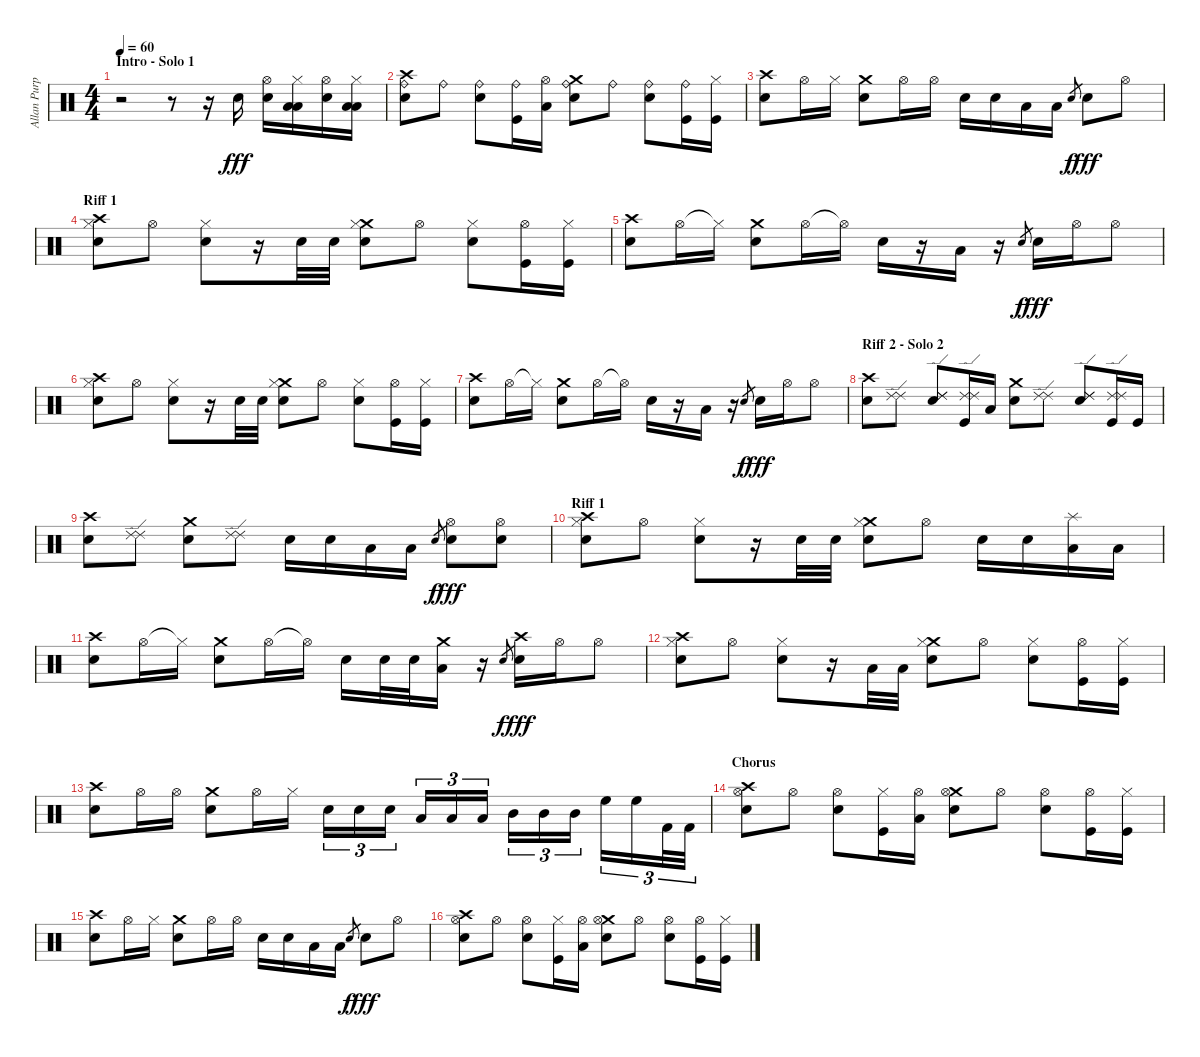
\track ("Allan Purple" "Allan Purp") {instrument percussion}
\staff {score}
\articulation defaults
\ts (4 4)
\section ("" "Intro - Solo 1")
\tempo 60
\clef neutral
\ks c
r.2{dy fff} r.8 r.16 "Electric Snare (hit)".16 ("Hi-Hat (open)" "Electric Snare (hit)").16 ("Hi-Hat (closed)" "Low Tom (hit)" "Low Tom (hit)").16 ("Hi-Hat (open)" "Electric Snare (hit)").16 ("Hi-Hat (closed)" "Low Tom (hit)" "Low Tom (hit)").16 |
("Crash high (hit)" "Ride (bell)" "Snare (hit) 2").8 "Ride (bell)".8 ("Ride (bell)" "Electric Snare (hit)").8 ("Ride (bell)" "Kick (hit)").16 ("Hi-Hat (open)" "Low Tom (hit)").16 ("Crash medium (hit)" "Ride (bell)" "Snare (hit) 2").8 "Ride (bell)".8 ("Ride (bell)" "Electric Snare (hit)").8 ("Ride (bell)" "Kick (hit)").16 ("Hi-Hat (closed)" "Kick (hit)").16 |
("Crash high (hit)" "Snare (hit) 2").8 "Hi-Hat (open)".16 "Hi-Hat (closed)".16 ("Crash medium (hit)" "Electric Snare (hit)").8 "Hi-Hat (open)".16 "Hi-Hat (open)".16 "Electric Snare (hit)".16 "Electric Snare (hit)".16 "Low Tom (hit)".16 "Low Tom (hit)".16 "Electric Snare (hit)".8{gr dy f} "Electric Snare (hit)".8{dy fff} "Hi-Hat (open)".8 |
\section ("" "Riff 1")
("Crash high (hit)" "Hi-Hat (closed)" "Snare (hit) 2").8 "Hi-Hat (open)".8 ("Hi-Hat (closed)" "Electric Snare (hit)").8 r.16 "Snare (hit) 2".32 "Snare (hit) 2".32 ("Crash medium (hit)" "Hi-Hat (closed)" "Snare (hit) 2").8 "Hi-Hat (open)".8 ("Hi-Hat (closed)" "Electric Snare (hit)").8 ("Hi-Hat (open)" "Kick (hit)").16 ("Hi-Hat (closed)" "Kick (hit)").16 |
("Crash high (hit)" "Snare (hit) 2").8 "Hi-Hat (open)".16 "Hi-Hat (closed)"{t}.16 ("Crash medium (hit)" "Electric Snare (hit)").8 "Hi-Hat (open)".16 "Hi-Hat (open)"{t}.16 "Electric Snare (hit)".16 r.16 "Low Tom (hit)".16 r.16 "Electric Snare (hit)".8{gr dy f} "Electric Snare (hit)".16{dy fff} "Hi-Hat (open)".16 "Hi-Hat (open)".8 |
("Crash high (hit)" "Hi-Hat (closed)" "Snare (hit) 2").8 "Hi-Hat (open)".8 ("Hi-Hat (closed)" "Electric Snare (hit)").8 r.16 "Snare (hit) 2".32 "Snare (hit) 2".32 ("Crash medium (hit)" "Hi-Hat (closed)" "Snare (hit) 2").8 "Hi-Hat (open)".8 ("Hi-Hat (closed)" "Electric Snare (hit)").8 ("Hi-Hat (open)" "Kick (hit)").16 ("Hi-Hat (closed)" "Kick (hit)").16 |
("Crash high (hit)" "Snare (hit) 2").8 "Hi-Hat (open)".16 "Hi-Hat (closed)"{t}.16 ("Crash medium (hit)" "Electric Snare (hit)").8 "Hi-Hat (open)".16 "Hi-Hat (open)"{t}.16 "Electric Snare (hit)".16 r.16 "Low Tom (hit)".16 r.16 "Electric Snare (hit)".8{gr dy f} "Electric Snare (hit)".16{dy fff} "Hi-Hat (open)".16 "Hi-Hat (open)".8 |
\section ("" "Riff 2 - Solo 2")
("Crash high (hit)" "Snare (hit) 2").8 ("Ride (edge) 2" "Ride (edge) 2").8 ("Ride (edge) 2" "Ride (edge) 2" "Electric Snare (hit)").8 ("Ride (edge) 2" "Ride (edge) 2" "Kick (hit)").16 "Low Tom (hit)".16 ("Crash medium (hit)" "Snare (hit) 2").8 ("Ride (edge) 2" "Ride (edge) 2").8 ("Ride (edge) 2" "Ride (edge) 2" "Electric Snare (hit)").8 ("Ride (edge) 2" "Ride (edge) 2" "Kick (hit)").16 "Kick (hit)".16 |
("Crash high (hit)" "Snare (hit) 2").8 ("Ride (edge) 2" "Ride (edge) 2").8 ("Crash medium (hit)" "Electric Snare (hit)").8 ("Ride (edge) 2" "Ride (edge) 2").8 "Electric Snare (hit)".16 "Electric Snare (hit)".16 "Low Tom (hit)".16 "Low Tom (hit)".16 "Electric Snare (hit)".8{gr dy f} ("Hi-Hat (open)" "Electric Snare (hit)").8{dy fff} ("Hi-Hat (open)" "Snare (hit) 2").8 |
\section ("" "Riff 1")
("Crash high (hit)" "Hi-Hat (closed)" "Snare (hit) 2").8 "Hi-Hat (open)".8 ("Hi-Hat (closed)" "Electric Snare (hit)").8 r.16 "Snare (hit) 2".32 "Snare (hit) 2".32 ("Crash medium (hit)" "Hi-Hat (closed)" "Snare (hit) 2").8 "Hi-Hat (open)".8 "Electric Snare (hit)".16 "Electric Snare (hit)".16 ("Splash (hit)" "Low Tom (hit)").16 "Low Tom (hit)".16 |
("Crash high (hit)" "Snare (hit) 2").8 "Hi-Hat (open)".16 "Hi-Hat (closed)"{t}.16 ("Crash medium (hit)" "Electric Snare (hit)").8 "Hi-Hat (open)".16 "Hi-Hat (open)"{t}.16 "Electric Snare (hit)".16 "Electric Snare (hit)".32 "Electric Snare (hit)".32 ("Crash medium (hit)" "Low Tom (hit)").16 r.16 "Electric Snare (hit)".8{gr dy f} ("Crash high (hit)" "Electric Snare (hit)").16{dy fff} "Hi-Hat (open)".16 "Hi-Hat (open)".8 |
("Crash high (hit)" "Hi-Hat (closed)" "Snare (hit) 2").8 "Hi-Hat (open)".8 ("Hi-Hat (closed)" "Electric Snare (hit)").8 r.16 "Low Tom (hit)".32 "Low Tom (hit)".32 ("Crash medium (hit)" "Hi-Hat (closed)" "Snare (hit) 2").8 "Hi-Hat (open)".8 ("Hi-Hat (closed)" "Electric Snare (hit)").8 ("Hi-Hat (open)" "Kick (hit)").16 ("Hi-Hat (closed)" "Kick (hit)").16 |
("Crash high (hit)" "Snare (hit) 2").8 "Hi-Hat (open)".16 "Hi-Hat (open)".16 ("Crash medium (hit)" "Electric Snare (hit)").8 "Hi-Hat (open)".16 "Hi-Hat (closed)".16 "Electric Snare (hit)".16{tu (3 2)} "Electric Snare (hit)".16{tu (3 2)} "Electric Snare (hit)".16{tu (3 2)} "Low Tom (hit)".16{tu (3 2)} "Low Tom (hit)".16{tu (3 2)} "Low Tom (hit)".16{tu (3 2)} "Mid Tom (hit)".16{tu (3 2)} "Mid Tom (hit)".16{tu (3 2)} "Mid Tom (hit)".16{tu (3 2)} "High Floor Tom (hit)".16{tu (3 2)} "High Floor Tom (hit)".16{tu (3 2)} "Kick (hit) 2".32{tu (3 2)} "Kick (hit) 2".32{tu (3 2)} |
\section ("" "Chorus")
("Crash high (hit)" "Hi-Hat (open)" "Snare (hit) 2").8 "Hi-Hat (open)".8 ("Hi-Hat (open)" "Electric Snare (hit)").8 ("Hi-Hat (closed)" "Kick (hit)").16 ("Hi-Hat (open)" "Low Tom (hit)").16 ("Crash medium (hit)" "Hi-Hat (open)" "Snare (hit) 2").8 "Hi-Hat (open)".8 ("Hi-Hat (open)" "Electric Snare (hit)").8 ("Hi-Hat (open)" "Kick (hit)").16 ("Hi-Hat (closed)" "Kick (hit)").16 |
("Crash high (hit)" "Snare (hit) 2").8 "Hi-Hat (open)".16 "Hi-Hat (closed)".16 ("Crash medium (hit)" "Electric Snare (hit)").8 "Hi-Hat (open)".16 "Hi-Hat (open)".16 "Electric Snare (hit)".16 "Electric Snare (hit)".16 "Low Tom (hit)".16 "Low Tom (hit)".16 "Electric Snare (hit)".8{gr dy f} "Electric Snare (hit)".8{dy fff} "Hi-Hat (open)".8 |
("Crash high (hit)" "Hi-Hat (open)" "Snare (hit) 2").8 "Hi-Hat (open)".8 ("Hi-Hat (open)" "Electric Snare (hit)").8 ("Hi-Hat (closed)" "Kick (hit)").16 ("Hi-Hat (open)" "Low Tom (hit)").16 ("Crash medium (hit)" "Hi-Hat (open)" "Snare (hit) 2").8 "Hi-Hat (open)".8 ("Hi-Hat (open)" "Electric Snare (hit)").8 ("Hi-Hat (open)" "Kick (hit)").16 ("Hi-Hat (closed)" "Kick (hit)").16
